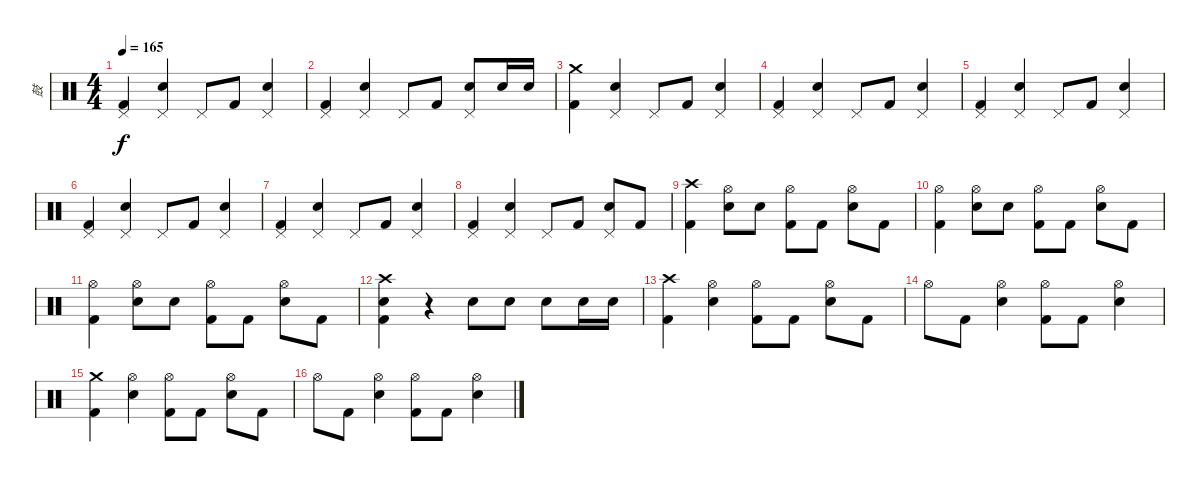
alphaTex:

\track ("鼓" "鼓") {instrument percussion}
\staff {score}
\articulation defaults
\ts (4 4)
\tempo 165
\clef neutral
\ks c
("Pedal Hi-Hat (hit)" "Kick (hit) 2").4{dy f} ("Pedal Hi-Hat (hit)" "Snare (hit) 2").4 "Pedal Hi-Hat (hit)".8 "Kick (hit) 2".8 ("Pedal Hi-Hat (hit)" "Snare (hit) 2").4 |
("Pedal Hi-Hat (hit)" "Kick (hit) 2").4 ("Pedal Hi-Hat (hit)" "Snare (hit) 2").4 "Pedal Hi-Hat (hit)".8 "Kick (hit) 2".8 ("Pedal Hi-Hat (hit)" "Snare (hit) 2").8 "Snare (hit) 2".16 "Snare (hit) 2".16 |
("Crash medium (hit)" "Kick (hit) 2").4 ("Pedal Hi-Hat (hit)" "Snare (hit) 2").4 "Pedal Hi-Hat (hit)".8 "Kick (hit) 2".8 ("Pedal Hi-Hat (hit)" "Snare (hit) 2").4 |
("Pedal Hi-Hat (hit)" "Kick (hit) 2").4 ("Pedal Hi-Hat (hit)" "Snare (hit) 2").4 "Pedal Hi-Hat (hit)".8 "Kick (hit) 2".8 ("Pedal Hi-Hat (hit)" "Snare (hit) 2").4 |
("Pedal Hi-Hat (hit)" "Kick (hit) 2").4 ("Pedal Hi-Hat (hit)" "Snare (hit) 2").4 "Pedal Hi-Hat (hit)".8 "Kick (hit) 2".8 ("Pedal Hi-Hat (hit)" "Snare (hit) 2").4 |
("Pedal Hi-Hat (hit)" "Kick (hit) 2").4 ("Pedal Hi-Hat (hit)" "Snare (hit) 2").4 "Pedal Hi-Hat (hit)".8 "Kick (hit) 2".8 ("Pedal Hi-Hat (hit)" "Snare (hit) 2").4 |
("Pedal Hi-Hat (hit)" "Kick (hit) 2").4 ("Pedal Hi-Hat (hit)" "Snare (hit) 2").4 "Pedal Hi-Hat (hit)".8 "Kick (hit) 2".8 ("Pedal Hi-Hat (hit)" "Snare (hit) 2").4 |
("Pedal Hi-Hat (hit)" "Kick (hit) 2").4 ("Pedal Hi-Hat (hit)" "Snare (hit) 2").4 "Pedal Hi-Hat (hit)".8 "Kick (hit) 2".8 ("Pedal Hi-Hat (hit)" "Snare (hit) 2").8 "Kick (hit) 2".8 |
("Crash high (hit)" "Kick (hit) 2").4 ("Hi-Hat (open)" "Snare (hit) 2").8 "Snare (hit) 2".8 ("Hi-Hat (open)" "Kick (hit) 2").8 "Kick (hit) 2".8 ("Hi-Hat (open)" "Snare (hit) 2").8 "Kick (hit) 2".8 |
("Hi-Hat (open)" "Kick (hit) 2").4 ("Hi-Hat (open)" "Snare (hit) 2").8 "Snare (hit) 2".8 ("Hi-Hat (open)" "Kick (hit) 2").8 "Kick (hit) 2".8 ("Hi-Hat (open)" "Snare (hit) 2").8 "Kick (hit) 2".8 |
("Hi-Hat (open)" "Kick (hit) 2").4 ("Hi-Hat (open)" "Snare (hit) 2").8 "Snare (hit) 2".8 ("Hi-Hat (open)" "Kick (hit) 2").8 "Kick (hit) 2".8 ("Hi-Hat (open)" "Snare (hit) 2").8 "Kick (hit) 2".8 |
("Crash high (hit)" "Snare (hit) 2" "Kick (hit) 2").4 r.4 "Snare (hit) 2".8 "Snare (hit) 2".8 "Snare (hit) 2".8 "Snare (hit) 2".16 "Snare (hit) 2".16 |
("Crash high (hit)" "Kick (hit) 2").4 ("Hi-Hat (open)" "Snare (hit) 2").4 ("Hi-Hat (open)" "Kick (hit) 2").8 "Kick (hit) 2".8 ("Hi-Hat (open)" "Snare (hit) 2").8 "Kick (hit) 2".8 |
"Hi-Hat (open)".8 "Kick (hit) 2".8 ("Hi-Hat (open)" "Snare (hit) 2").4 ("Hi-Hat (open)" "Kick (hit) 2").8 "Kick (hit) 2".8 ("Hi-Hat (open)" "Snare (hit) 2").4 |
("Crash medium (hit)" "Kick (hit) 2").4 ("Hi-Hat (open)" "Snare (hit) 2").4 ("Hi-Hat (open)" "Kick (hit) 2").8 "Kick (hit) 2".8 ("Hi-Hat (open)" "Snare (hit) 2").8 "Kick (hit) 2".8 |
"Hi-Hat (open)".8 "Kick (hit) 2".8 ("Hi-Hat (open)" "Snare (hit) 2").4 ("Hi-Hat (open)" "Kick (hit) 2").8 "Kick (hit) 2".8 ("Hi-Hat (open)" "Snare (hit) 2").4
